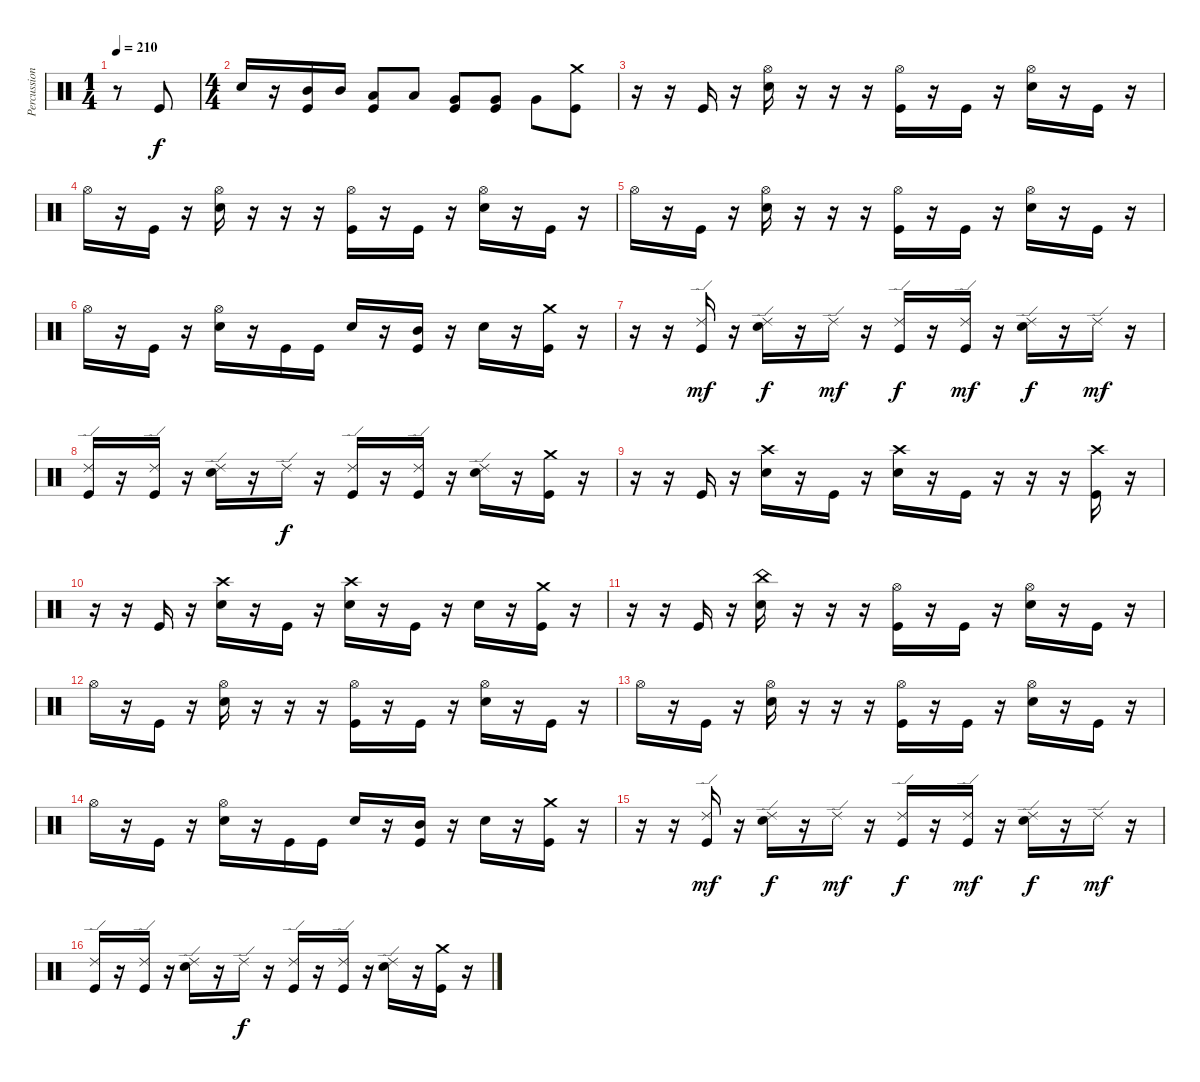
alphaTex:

\track ("Percussion" "Percussion") {instrument percussion}
\staff {score}
\articulation defaults
\ts (1 4)
\tempo 210
\clef neutral
\ks c
r.8{dy f} "Kick (hit)".8 |
\ts (4 4)
"Electric Snare (hit)".16 r.16 ("Kick (hit)" "Mid Tom (hit)").16 "Mid Tom (hit)".16 ("Kick (hit)" "Low Tom (hit)").8 "Low Tom (hit)".8 ("Kick (hit)" "Very Low Tom (hit)").8 ("Kick (hit)" "Very Low Tom (hit)").8 "Very Low Tom (hit)".8 ("Crash medium (hit)" "Kick (hit)").8 |
r.16 r.16 "Kick (hit)".16 r.16 ("Hi-Hat (open)" "Electric Snare (hit)").16 r.16 r.16 r.16 ("Kick (hit)" "Hi-Hat (open)").16 r.16 "Kick (hit)".16 r.16 ("Electric Snare (hit)" "Hi-Hat (open)").16 r.16 "Kick (hit)".16 r.16 |
"Hi-Hat (open)".16 r.16 "Kick (hit)".16 r.16 ("Hi-Hat (open)" "Electric Snare (hit)").16 r.16 r.16 r.16 ("Kick (hit)" "Hi-Hat (open)").16 r.16 "Kick (hit)".16 r.16 ("Electric Snare (hit)" "Hi-Hat (open)").16 r.16 "Kick (hit)".16 r.16 |
"Hi-Hat (open)".16 r.16 "Kick (hit)".16 r.16 ("Hi-Hat (open)" "Electric Snare (hit)").16 r.16 r.16 r.16 ("Kick (hit)" "Hi-Hat (open)").16 r.16 "Kick (hit)".16 r.16 ("Electric Snare (hit)" "Hi-Hat (open)").16 r.16 "Kick (hit)".16 r.16 |
"Hi-Hat (open)".16 r.16 "Kick (hit)".16 r.16 ("Hi-Hat (open)" "Electric Snare (hit)").16 r.16 "Kick (hit)".16 "Kick (hit)".16 "Electric Snare (hit)".16 r.16 ("Kick (hit)" "Mid Tom (hit)").16 r.16 "Electric Snare (hit)".16 r.16 ("Kick (hit)" "Crash medium (hit)").16 r.16 |
r.16 r.16 ("Ride (edge) 2" "Kick (hit)").16{dy mf} r.16 ("Ride (edge) 2" "Electric Snare (hit)").16{dy f} r.16 "Ride (edge) 2".16{dy mf} r.16 ("Ride (edge) 2" "Kick (hit)").16{dy f} r.16 ("Ride (edge) 2" "Kick (hit)").16{dy mf} r.16 ("Ride (edge) 2" "Electric Snare (hit)").16{dy f} r.16 "Ride (edge) 2".16{dy mf} r.16 |
("Ride (edge) 2" "Kick (hit)").16 r.16 ("Ride (edge) 2" "Kick (hit)").16 r.16 ("Ride (edge) 2" "Electric Snare (hit)").16 r.16 "Ride (edge) 2".16{dy f} r.16 ("Ride (edge) 2" "Kick (hit)").16 r.16 ("Ride (edge) 2" "Kick (hit)").16 r.16 ("Ride (edge) 2" "Electric Snare (hit)").16 r.16 ("Crash medium (hit)" "Kick (hit)").16 r.16 |
r.16 r.16 "Kick (hit)".16 r.16 ("Crash high (hit)" "Electric Snare (hit)").16 r.16 "Kick (hit)".16 r.16 ("Crash high (hit)" "Electric Snare (hit)").16 r.16 "Kick (hit)".16 r.16 r.16 r.16 ("Crash high (hit)" "Kick (hit)").16 r.16 |
r.16 r.16 "Kick (hit)".16 r.16 ("Crash high (hit)" "Electric Snare (hit)").16 r.16 "Kick (hit)".16 r.16 ("Crash high (hit)" "Electric Snare (hit)").16 r.16 "Kick (hit)".16 r.16 "Electric Snare (hit)".16 r.16 ("Crash medium (hit)" "Kick (hit)").16 r.16 |
r.16 r.16 "Kick (hit)".16 r.16 ("China (hit)" "Electric Snare (hit)").16 r.16 r.16 r.16 ("Kick (hit)" "Hi-Hat (open)").16 r.16 "Kick (hit)".16 r.16 ("Electric Snare (hit)" "Hi-Hat (open)").16 r.16 "Kick (hit)".16 r.16 |
"Hi-Hat (open)".16 r.16 "Kick (hit)".16 r.16 ("Hi-Hat (open)" "Electric Snare (hit)").16 r.16 r.16 r.16 ("Kick (hit)" "Hi-Hat (open)").16 r.16 "Kick (hit)".16 r.16 ("Electric Snare (hit)" "Hi-Hat (open)").16 r.16 "Kick (hit)".16 r.16 |
"Hi-Hat (open)".16 r.16 "Kick (hit)".16 r.16 ("Hi-Hat (open)" "Electric Snare (hit)").16 r.16 r.16 r.16 ("Kick (hit)" "Hi-Hat (open)").16 r.16 "Kick (hit)".16 r.16 ("Electric Snare (hit)" "Hi-Hat (open)").16 r.16 "Kick (hit)".16 r.16 |
"Hi-Hat (open)".16 r.16 "Kick (hit)".16 r.16 ("Hi-Hat (open)" "Electric Snare (hit)").16 r.16 "Kick (hit)".16 "Kick (hit)".16 "Electric Snare (hit)".16 r.16 ("Kick (hit)" "Mid Tom (hit)").16 r.16 "Electric Snare (hit)".16 r.16 ("Kick (hit)" "Crash medium (hit)").16 r.16 |
r.16 r.16 ("Ride (edge) 2" "Kick (hit)").16{dy mf} r.16 ("Ride (edge) 2" "Electric Snare (hit)").16{dy f} r.16 "Ride (edge) 2".16{dy mf} r.16 ("Ride (edge) 2" "Kick (hit)").16{dy f} r.16 ("Ride (edge) 2" "Kick (hit)").16{dy mf} r.16 ("Ride (edge) 2" "Electric Snare (hit)").16{dy f} r.16 "Ride (edge) 2".16{dy mf} r.16 |
("Ride (edge) 2" "Kick (hit)").16 r.16 ("Ride (edge) 2" "Kick (hit)").16 r.16 ("Ride (edge) 2" "Electric Snare (hit)").16 r.16 "Ride (edge) 2".16{dy f} r.16 ("Ride (edge) 2" "Kick (hit)").16 r.16 ("Ride (edge) 2" "Kick (hit)").16 r.16 ("Ride (edge) 2" "Electric Snare (hit)").16 r.16 ("Crash medium (hit)" "Kick (hit)").16 r.16
